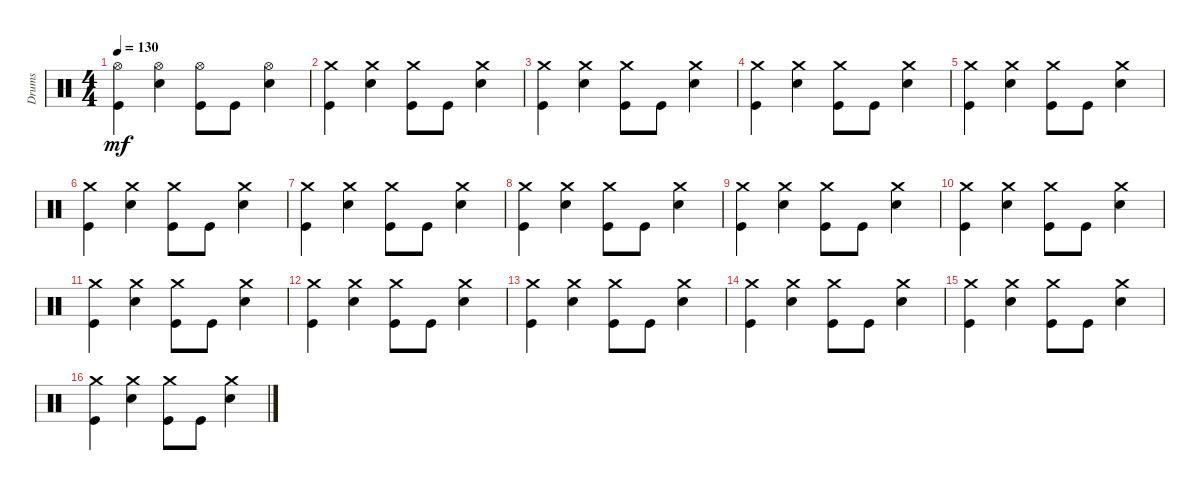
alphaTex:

\defaultSystemsLayout 4
\track ("Drumkit" "Drums") {instrument percussion}
\staff {score}
\articulation defaults
\ts (4 4)
\tempo 130
\clef neutral
\ks c
("Hi-Hat (open)" "Kick (hit)").4{dy mf} ("Hi-Hat (open)" "Snare (hit) 2").4 ("Hi-Hat (open)" "Kick (hit)").8 "Kick (hit)".8 ("Hi-Hat (open)" "Snare (hit) 2").4 |
("Kick (hit)" "Crash medium (hit)").4 ("Snare (hit) 2" "Crash medium (hit)").4 ("Kick (hit)" "Crash medium (hit)").8 "Kick (hit)".8 ("Snare (hit) 2" "Crash medium (hit)").4 |
("Kick (hit)" "Crash medium (hit)").4 ("Snare (hit) 2" "Crash medium (hit)").4 ("Kick (hit)" "Crash medium (hit)").8 "Kick (hit)".8 ("Snare (hit) 2" "Crash medium (hit)").4 |
("Kick (hit)" "Crash medium (hit)").4 ("Snare (hit) 2" "Crash medium (hit)").4 ("Kick (hit)" "Crash medium (hit)").8 "Kick (hit)".8 ("Snare (hit) 2" "Crash medium (hit)").4 |
("Kick (hit)" "Crash medium (hit)").4 ("Snare (hit) 2" "Crash medium (hit)").4 ("Kick (hit)" "Crash medium (hit)").8 "Kick (hit)".8 ("Snare (hit) 2" "Crash medium (hit)").4 |
("Kick (hit)" "Crash medium (hit)").4 ("Snare (hit) 2" "Crash medium (hit)").4 ("Kick (hit)" "Crash medium (hit)").8 "Kick (hit)".8 ("Snare (hit) 2" "Crash medium (hit)").4 |
("Kick (hit)" "Crash medium (hit)").4 ("Snare (hit) 2" "Crash medium (hit)").4 ("Kick (hit)" "Crash medium (hit)").8 "Kick (hit)".8 ("Snare (hit) 2" "Crash medium (hit)").4 |
("Kick (hit)" "Crash medium (hit)").4 ("Snare (hit) 2" "Crash medium (hit)").4 ("Kick (hit)" "Crash medium (hit)").8 "Kick (hit)".8 ("Snare (hit) 2" "Crash medium (hit)").4 |
("Kick (hit)" "Crash medium (hit)").4 ("Snare (hit) 2" "Crash medium (hit)").4 ("Kick (hit)" "Crash medium (hit)").8 "Kick (hit)".8 ("Snare (hit) 2" "Crash medium (hit)").4 |
("Kick (hit)" "Crash medium (hit)").4 ("Snare (hit) 2" "Crash medium (hit)").4 ("Kick (hit)" "Crash medium (hit)").8 "Kick (hit)".8 ("Snare (hit) 2" "Crash medium (hit)").4 |
("Kick (hit)" "Crash medium (hit)").4 ("Snare (hit) 2" "Crash medium (hit)").4 ("Kick (hit)" "Crash medium (hit)").8 "Kick (hit)".8 ("Snare (hit) 2" "Crash medium (hit)").4 |
("Kick (hit)" "Crash medium (hit)").4 ("Snare (hit) 2" "Crash medium (hit)").4 ("Kick (hit)" "Crash medium (hit)").8 "Kick (hit)".8 ("Snare (hit) 2" "Crash medium (hit)").4 |
("Kick (hit)" "Crash medium (hit)").4 ("Snare (hit) 2" "Crash medium (hit)").4 ("Kick (hit)" "Crash medium (hit)").8 "Kick (hit)".8 ("Snare (hit) 2" "Crash medium (hit)").4 |
("Kick (hit)" "Crash medium (hit)").4 ("Snare (hit) 2" "Crash medium (hit)").4 ("Kick (hit)" "Crash medium (hit)").8 "Kick (hit)".8 ("Snare (hit) 2" "Crash medium (hit)").4 |
("Kick (hit)" "Crash medium (hit)").4 ("Snare (hit) 2" "Crash medium (hit)").4 ("Kick (hit)" "Crash medium (hit)").8 "Kick (hit)".8 ("Snare (hit) 2" "Crash medium (hit)").4 |
("Kick (hit)" "Crash medium (hit)").4 ("Snare (hit) 2" "Crash medium (hit)").4 ("Kick (hit)" "Crash medium (hit)").8 "Kick (hit)".8 ("Snare (hit) 2" "Crash medium (hit)").4
